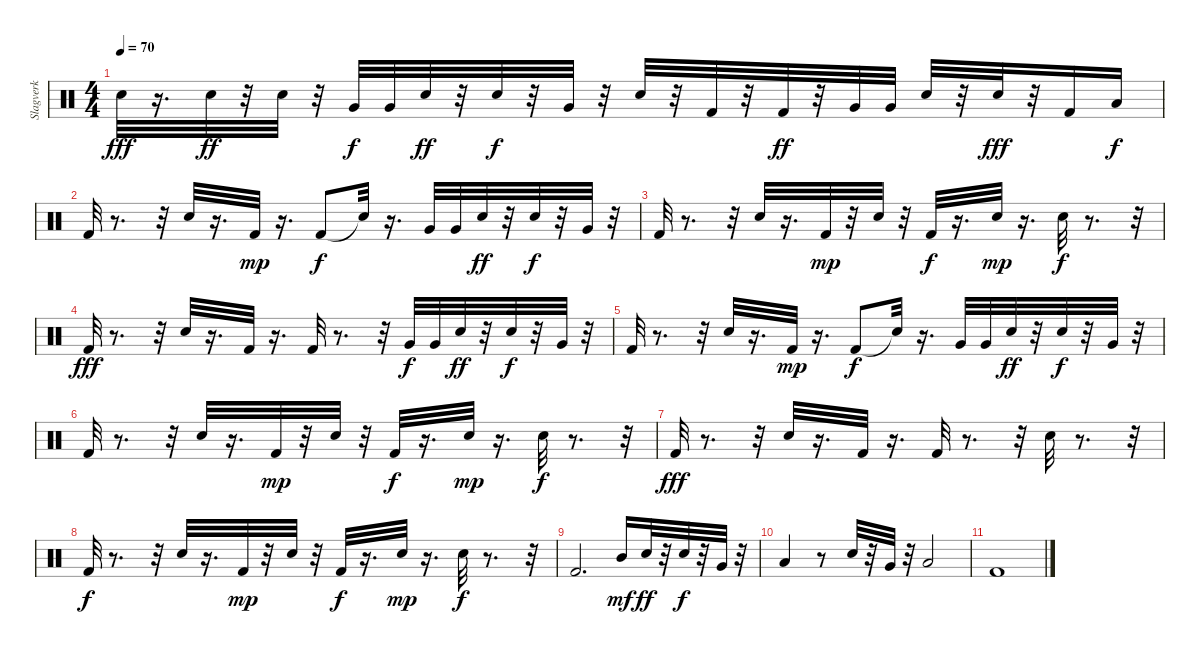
\track ("Slagverk" "Slagverk") {instrument percussion}
\staff {score}
\articulation defaults
\ts (4 4)
\tempo 70
\clef neutral
\ks c "Electric Snare (hit)".32{dy fff}
r.16{d} "Electric Snare (hit)".32{dy ff} r.32 "Electric Snare (hit)".32 r.32 "Very Low Tom (hit)".32{dy f} "Very Low Tom (hit)".32 "Electric Snare (hit)".32{dy ff} r.32 "Electric Snare (hit)".32{dy f} r.32 "Very Low Tom (hit)".32 r.32 "Electric Snare (hit)".32 r.32 "Kick (hit) 2".32 r.32 "Kick (hit) 2".32{dy ff} r.32 "Very Low Tom (hit)".32 "Very Low Tom (hit)".32 "Electric Snare (hit)".32 r.32 "Electric Snare (hit)".32{dy fff} r.32 "Kick (hit) 2".16 "Low Tom (hit)".16{dy f} |
"Kick (hit) 2".32 r.8{d} r.32 "Electric Snare (hit)".32 r.16{d} "Kick (hit) 2".32{dy mp} r.16{d} "Kick (hit) 2".8{dy f} "Snare (hit)"{t}.32 r.16{d} "Very Low Tom (hit)".32 "Very Low Tom (hit)".32 "Electric Snare (hit)".32{dy ff} r.32 "Electric Snare (hit)".32{dy f} r.32 "Very Low Tom (hit)".32 r.32 |
"Kick (hit) 2".32 r.8{d} r.32 "Electric Snare (hit)".32 r.16{d} "Kick (hit) 2".32{dy mp} r.32 "Electric Snare (hit)".32 r.32 "Kick (hit) 2".32{dy f} r.16{d} "Electric Snare (hit)".32{dy mp} r.16{d} "Electric Snare (hit)".32{dy f} r.8{d} r.32 |
"Kick (hit) 2".32{dy fff} r.8{d} r.32 "Electric Snare (hit)".32 r.16{d} "Kick (hit) 2".32 r.16{d} "Kick (hit) 2".32 r.8{d} r.32 "Very Low Tom (hit)".32{dy f} "Very Low Tom (hit)".32 "Electric Snare (hit)".32{dy ff} r.32 "Electric Snare (hit)".32{dy f} r.32 "Very Low Tom (hit)".32 r.32 |
"Kick (hit) 2".32 r.8{d} r.32 "Electric Snare (hit)".32 r.16{d} "Kick (hit) 2".32{dy mp} r.16{d} "Kick (hit) 2".8{dy f} "Snare (hit)"{t}.32 r.16{d} "Very Low Tom (hit)".32 "Very Low Tom (hit)".32 "Electric Snare (hit)".32{dy ff} r.32 "Electric Snare (hit)".32{dy f} r.32 "Very Low Tom (hit)".32 r.32 |
"Kick (hit) 2".32 r.8{d} r.32 "Electric Snare (hit)".32 r.16{d} "Kick (hit) 2".32{dy mp} r.32 "Electric Snare (hit)".32 r.32 "Kick (hit) 2".32{dy f} r.16{d} "Electric Snare (hit)".32{dy mp} r.16{d} "Electric Snare (hit)".32{dy f} r.8{d} r.32 |
"Kick (hit) 2".32{dy fff} r.8{d} r.32 "Electric Snare (hit)".32 r.16{d} "Kick (hit) 2".32 r.16{d} "Kick (hit) 2".32 r.8{d} r.32 "Electric Snare (hit)".32 r.8{d} r.32 |
"Kick (hit) 2".32{dy f} r.8{d} r.32 "Electric Snare (hit)".32 r.16{d} "Kick (hit) 2".32{dy mp} r.32 "Electric Snare (hit)".32 r.32 "Kick (hit) 2".32{dy f} r.16{d} "Electric Snare (hit)".32{dy mp} r.16{d} "Electric Snare (hit)".32{dy f} r.8{d} r.32 |
"Kick (hit) 2".2{d} "Mid Tom (hit)".16{dy mf} "Electric Snare (hit)".32{dy ff} r.32 "Electric Snare (hit)".32{dy f} r.32 "Very Low Tom (hit)".32 r.32 |
"Low Floor Tom (hit)".4 r.8 "Electric Snare (hit)".32 r.32 "Very Low Tom (hit)".32 r.32 "Low Floor Tom (hit)".2 |
"Kick (hit) 2".1
